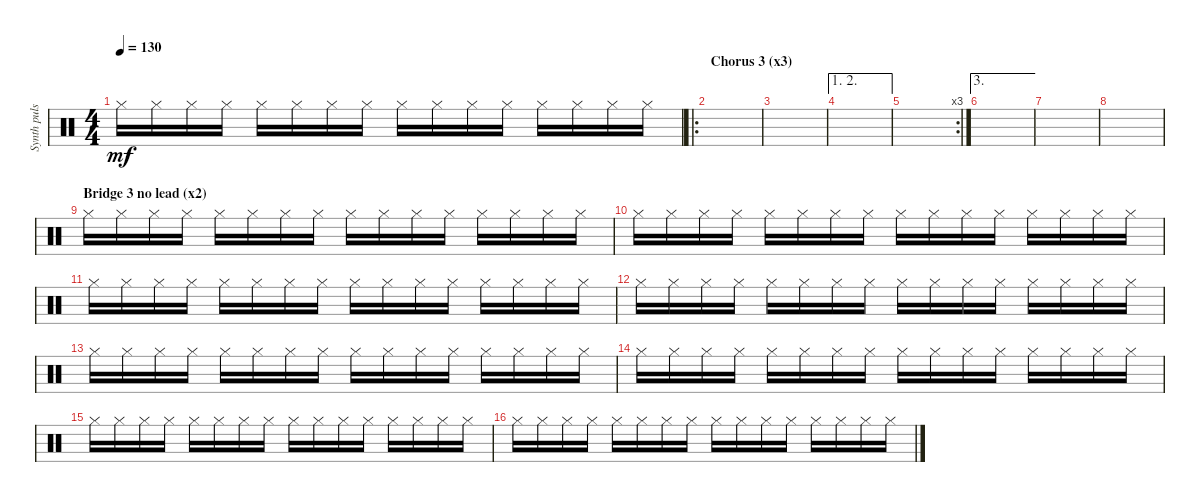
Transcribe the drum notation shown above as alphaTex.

\track ("Synth pulse perc" "Synth puls") {instrument percussion}
\staff {score}
\articulation defaults
\ts (4 4)
\tempo 130
\clef neutral
\ks c "Hi-Hat (closed)".16{dy mf} "Hi-Hat (closed)".16 "Hi-Hat (closed)".16 "Hi-Hat (closed)".16 "Hi-Hat (closed)".16 "Hi-Hat (closed)".16 "Hi-Hat (closed)".16 "Hi-Hat (closed)".16 "Hi-Hat (closed)".16 "Hi-Hat (closed)".16 "Hi-Hat (closed)".16 "Hi-Hat (closed)".16 "Hi-Hat (closed)".16 "Hi-Hat (closed)".16 "Hi-Hat (closed)".16 "Hi-Hat (closed)".16
|
\ro
\section ("" "Chorus 3 (x3)")
|
|
\ae (1 2)
|
\rc 3
|
\ae 3
|
|
|
\section ("" "Bridge 3 no lead (x2)")
"Hi-Hat (closed)".16 "Hi-Hat (closed)".16 "Hi-Hat (closed)".16 "Hi-Hat (closed)".16 "Hi-Hat (closed)".16 "Hi-Hat (closed)".16 "Hi-Hat (closed)".16 "Hi-Hat (closed)".16 "Hi-Hat (closed)".16 "Hi-Hat (closed)".16 "Hi-Hat (closed)".16 "Hi-Hat (closed)".16 "Hi-Hat (closed)".16 "Hi-Hat (closed)".16 "Hi-Hat (closed)".16 "Hi-Hat (closed)".16 |
"Hi-Hat (closed)".16 "Hi-Hat (closed)".16 "Hi-Hat (closed)".16 "Hi-Hat (closed)".16 "Hi-Hat (closed)".16 "Hi-Hat (closed)".16 "Hi-Hat (closed)".16 "Hi-Hat (closed)".16 "Hi-Hat (closed)".16 "Hi-Hat (closed)".16 "Hi-Hat (closed)".16 "Hi-Hat (closed)".16 "Hi-Hat (closed)".16 "Hi-Hat (closed)".16 "Hi-Hat (closed)".16 "Hi-Hat (closed)".16 |
"Hi-Hat (closed)".16 "Hi-Hat (closed)".16 "Hi-Hat (closed)".16 "Hi-Hat (closed)".16 "Hi-Hat (closed)".16 "Hi-Hat (closed)".16 "Hi-Hat (closed)".16 "Hi-Hat (closed)".16 "Hi-Hat (closed)".16 "Hi-Hat (closed)".16 "Hi-Hat (closed)".16 "Hi-Hat (closed)".16 "Hi-Hat (closed)".16 "Hi-Hat (closed)".16 "Hi-Hat (closed)".16 "Hi-Hat (closed)".16 |
"Hi-Hat (closed)".16 "Hi-Hat (closed)".16 "Hi-Hat (closed)".16 "Hi-Hat (closed)".16 "Hi-Hat (closed)".16 "Hi-Hat (closed)".16 "Hi-Hat (closed)".16 "Hi-Hat (closed)".16 "Hi-Hat (closed)".16 "Hi-Hat (closed)".16 "Hi-Hat (closed)".16 "Hi-Hat (closed)".16 "Hi-Hat (closed)".16 "Hi-Hat (closed)".16 "Hi-Hat (closed)".16 "Hi-Hat (closed)".16 |
"Hi-Hat (closed)".16 "Hi-Hat (closed)".16 "Hi-Hat (closed)".16 "Hi-Hat (closed)".16 "Hi-Hat (closed)".16 "Hi-Hat (closed)".16 "Hi-Hat (closed)".16 "Hi-Hat (closed)".16 "Hi-Hat (closed)".16 "Hi-Hat (closed)".16 "Hi-Hat (closed)".16 "Hi-Hat (closed)".16 "Hi-Hat (closed)".16 "Hi-Hat (closed)".16 "Hi-Hat (closed)".16 "Hi-Hat (closed)".16 |
"Hi-Hat (closed)".16 "Hi-Hat (closed)".16 "Hi-Hat (closed)".16 "Hi-Hat (closed)".16 "Hi-Hat (closed)".16 "Hi-Hat (closed)".16 "Hi-Hat (closed)".16 "Hi-Hat (closed)".16 "Hi-Hat (closed)".16 "Hi-Hat (closed)".16 "Hi-Hat (closed)".16 "Hi-Hat (closed)".16 "Hi-Hat (closed)".16 "Hi-Hat (closed)".16 "Hi-Hat (closed)".16 "Hi-Hat (closed)".16 |
"Hi-Hat (closed)".16 "Hi-Hat (closed)".16 "Hi-Hat (closed)".16 "Hi-Hat (closed)".16 "Hi-Hat (closed)".16 "Hi-Hat (closed)".16 "Hi-Hat (closed)".16 "Hi-Hat (closed)".16 "Hi-Hat (closed)".16 "Hi-Hat (closed)".16 "Hi-Hat (closed)".16 "Hi-Hat (closed)".16 "Hi-Hat (closed)".16 "Hi-Hat (closed)".16 "Hi-Hat (closed)".16 "Hi-Hat (closed)".16 |
"Hi-Hat (closed)".16 "Hi-Hat (closed)".16 "Hi-Hat (closed)".16 "Hi-Hat (closed)".16 "Hi-Hat (closed)".16 "Hi-Hat (closed)".16 "Hi-Hat (closed)".16 "Hi-Hat (closed)".16 "Hi-Hat (closed)".16 "Hi-Hat (closed)".16 "Hi-Hat (closed)".16 "Hi-Hat (closed)".16 "Hi-Hat (closed)".16 "Hi-Hat (closed)".16 "Hi-Hat (closed)".16 "Hi-Hat (closed)".16
